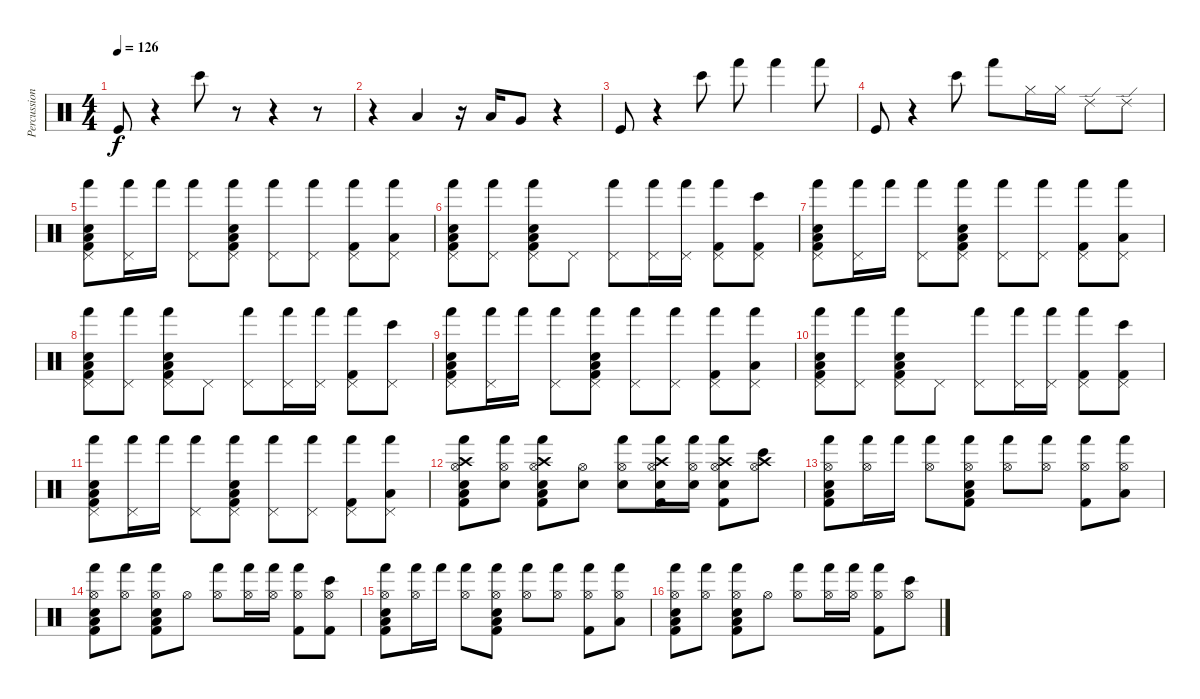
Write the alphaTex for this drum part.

\track ("Percussion" "Percussion") {instrument percussion}
\staff {score}
\articulation defaults
\ts (4 4)
\tempo 126
\clef neutral
\ks c "Kick (hit)".8{dy f}
r.4 "Bongo High (hit)".8 r.8 r.4 r.8 |
r.4 "Low Floor Tom (hit)".4 r.16 "Low Floor Tom (hit)".16 "Very Low Tom (hit)".8 r.4 |
"Kick (hit)".8 r.4 "Bongo High (hit)".8 "Hand (hit)".8 "Hand (hit)".4 "Hand (hit)".8 |
"Kick (hit)".8 r.4 "Bongo High (hit)".8 "Hand (hit)".8 "Hi-Hat (closed)".16 "Hi-Hat (closed)".16 "Ride (edge) 2".8 "Ride (edge) 2".8 |
("Hand (hit)" "Low Tom (hit)" "Kick (hit) 2" "Snare (hit) 2" "Pedal Hi-Hat (hit)").8 ("Hand (hit)" "Pedal Hi-Hat (hit)").16 "Hand (hit)".16 ("Hand (hit)" "Pedal Hi-Hat (hit)").8 ("Hand (hit)" "Low Tom (hit)" "Kick (hit) 2" "Snare (hit) 2" "Pedal Hi-Hat (hit)").8 ("Hand (hit)" "Pedal Hi-Hat (hit)").8 ("Hand (hit)" "Pedal Hi-Hat (hit)").8 ("Hand (hit)" "Kick (hit) 2" "Pedal Hi-Hat (hit)").8 ("Hand (hit)" "Low Tom (hit)" "Pedal Hi-Hat (hit)").8 |
("Hand (hit)" "Low Tom (hit)" "Kick (hit) 2" "Snare (hit) 2" "Pedal Hi-Hat (hit)").8 ("Hand (hit)" "Pedal Hi-Hat (hit)").8 ("Hand (hit)" "Low Tom (hit)" "Kick (hit) 2" "Snare (hit) 2" "Pedal Hi-Hat (hit)").8 "Pedal Hi-Hat (hit)".8 ("Hand (hit)" "Pedal Hi-Hat (hit)").8 ("Hand (hit)" "Pedal Hi-Hat (hit)").16 ("Hand (hit)" "Pedal Hi-Hat (hit)").16 ("Hand (hit)" "Kick (hit) 2" "Pedal Hi-Hat (hit)").8 ("Bongo High (hit)" "Kick (hit) 2" "Pedal Hi-Hat (hit)").8 |
("Hand (hit)" "Low Tom (hit)" "Kick (hit) 2" "Snare (hit) 2" "Pedal Hi-Hat (hit)").8 ("Hand (hit)" "Pedal Hi-Hat (hit)").16 "Hand (hit)".16 ("Hand (hit)" "Pedal Hi-Hat (hit)").8 ("Hand (hit)" "Low Tom (hit)" "Kick (hit) 2" "Snare (hit) 2" "Pedal Hi-Hat (hit)").8 ("Hand (hit)" "Pedal Hi-Hat (hit)").8 ("Hand (hit)" "Pedal Hi-Hat (hit)").8 ("Hand (hit)" "Kick (hit) 2" "Pedal Hi-Hat (hit)").8 ("Hand (hit)" "Low Tom (hit)" "Pedal Hi-Hat (hit)").8 |
("Hand (hit)" "Low Tom (hit)" "Kick (hit) 2" "Snare (hit) 2" "Pedal Hi-Hat (hit)").8 ("Hand (hit)" "Pedal Hi-Hat (hit)").8 ("Hand (hit)" "Low Tom (hit)" "Kick (hit) 2" "Snare (hit) 2" "Pedal Hi-Hat (hit)").8 "Pedal Hi-Hat (hit)".8 ("Hand (hit)" "Pedal Hi-Hat (hit)").8 ("Hand (hit)" "Pedal Hi-Hat (hit)").16 ("Hand (hit)" "Pedal Hi-Hat (hit)").16 ("Hand (hit)" "Kick (hit) 2" "Pedal Hi-Hat (hit)").8 ("Bongo High (hit)" "Pedal Hi-Hat (hit)").8 |
("Hand (hit)" "Low Tom (hit)" "Kick (hit) 2" "Snare (hit) 2" "Pedal Hi-Hat (hit)").8 ("Hand (hit)" "Pedal Hi-Hat (hit)").16 "Hand (hit)".16 ("Hand (hit)" "Pedal Hi-Hat (hit)").8 ("Hand (hit)" "Low Tom (hit)" "Kick (hit) 2" "Snare (hit) 2" "Pedal Hi-Hat (hit)").8 ("Hand (hit)" "Pedal Hi-Hat (hit)").8 ("Hand (hit)" "Pedal Hi-Hat (hit)").8 ("Hand (hit)" "Kick (hit) 2" "Pedal Hi-Hat (hit)").8 ("Hand (hit)" "Low Tom (hit)" "Pedal Hi-Hat (hit)").8 |
("Hand (hit)" "Low Tom (hit)" "Kick (hit) 2" "Snare (hit) 2" "Pedal Hi-Hat (hit)").8 ("Hand (hit)" "Pedal Hi-Hat (hit)").8 ("Hand (hit)" "Low Tom (hit)" "Kick (hit) 2" "Snare (hit) 2" "Pedal Hi-Hat (hit)").8 "Pedal Hi-Hat (hit)".8 ("Hand (hit)" "Pedal Hi-Hat (hit)").8 ("Hand (hit)" "Pedal Hi-Hat (hit)").16 ("Hand (hit)" "Pedal Hi-Hat (hit)").16 ("Hand (hit)" "Kick (hit) 2" "Pedal Hi-Hat (hit)").8 ("Bongo High (hit)" "Kick (hit) 2" "Pedal Hi-Hat (hit)").8 |
("Hand (hit)" "Low Tom (hit)" "Kick (hit) 2" "Snare (hit) 2" "Pedal Hi-Hat (hit)").8 ("Hand (hit)" "Pedal Hi-Hat (hit)").16 "Hand (hit)".16 ("Hand (hit)" "Pedal Hi-Hat (hit)").8 ("Hand (hit)" "Low Tom (hit)" "Kick (hit) 2" "Snare (hit) 2" "Pedal Hi-Hat (hit)").8 ("Hand (hit)" "Pedal Hi-Hat (hit)").8 ("Hand (hit)" "Pedal Hi-Hat (hit)").8 ("Hand (hit)" "Kick (hit) 2" "Pedal Hi-Hat (hit)").8 ("Hand (hit)" "Low Tom (hit)" "Pedal Hi-Hat (hit)").8 |
("Hand (hit)" "Crash high (hit)" "Low Tom (hit)" "Kick (hit) 2" "Snare (hit) 2" "Hi-Hat (open)").8 ("Hand (hit)" "Snare (hit) 2" "Hi-Hat (open)").8 ("Hand (hit)" "Crash high (hit)" "Low Tom (hit)" "Kick (hit) 2" "Snare (hit) 2" "Hi-Hat (open)").8 ("Snare (hit) 2" "Hi-Hat (open)").8 ("Hand (hit)" "Snare (hit) 2" "Hi-Hat (open)").8 ("Hand (hit)" "Crash high (hit)" "Snare (hit) 2" "Kick (hit) 2" "Hi-Hat (open)").16 ("Hand (hit)" "Snare (hit) 2" "Hi-Hat (open)").16 ("Hand (hit)" "Crash high (hit)" "Snare (hit) 2" "Kick (hit) 2" "Hi-Hat (open)").8 ("Bongo High (hit)" "Crash high (hit)" "Hi-Hat (open)").8 |
("Hand (hit)" "Low Tom (hit)" "Kick (hit) 2" "Snare (hit) 2" "Hi-Hat (open)").8 ("Hand (hit)" "Hi-Hat (open)").16 "Hand (hit)".16 ("Hand (hit)" "Hi-Hat (open)").8 ("Hand (hit)" "Low Tom (hit)" "Kick (hit) 2" "Snare (hit) 2" "Hi-Hat (open)").8 ("Hand (hit)" "Hi-Hat (open)").8 ("Hand (hit)" "Hi-Hat (open)").8 ("Hand (hit)" "Kick (hit) 2" "Hi-Hat (open)").8 ("Hand (hit)" "Low Tom (hit)" "Hi-Hat (open)").8 |
("Hand (hit)" "Low Tom (hit)" "Kick (hit) 2" "Snare (hit) 2" "Hi-Hat (open)").8 ("Hand (hit)" "Hi-Hat (open)").8 ("Hand (hit)" "Low Tom (hit)" "Kick (hit) 2" "Snare (hit) 2" "Hi-Hat (open)").8 "Hi-Hat (open)".8 ("Hand (hit)" "Hi-Hat (open)").8 ("Hand (hit)" "Hi-Hat (open)").16 ("Hand (hit)" "Hi-Hat (open)").16 ("Hand (hit)" "Kick (hit) 2" "Hi-Hat (open)").8 ("Bongo High (hit)" "Kick (hit) 2" "Hi-Hat (open)").8 |
("Hand (hit)" "Low Tom (hit)" "Kick (hit) 2" "Snare (hit) 2" "Hi-Hat (open)").8 ("Hand (hit)" "Hi-Hat (open)").16 "Hand (hit)".16 ("Hand (hit)" "Hi-Hat (open)").8 ("Hand (hit)" "Low Tom (hit)" "Kick (hit) 2" "Snare (hit) 2" "Hi-Hat (open)").8 ("Hand (hit)" "Hi-Hat (open)").8 ("Hand (hit)" "Hi-Hat (open)").8 ("Hand (hit)" "Kick (hit) 2" "Hi-Hat (open)").8 ("Hand (hit)" "Low Tom (hit)" "Hi-Hat (open)").8 |
("Hand (hit)" "Low Tom (hit)" "Kick (hit) 2" "Snare (hit) 2" "Hi-Hat (open)").8 ("Hand (hit)" "Hi-Hat (open)").8 ("Hand (hit)" "Low Tom (hit)" "Kick (hit) 2" "Snare (hit) 2" "Hi-Hat (open)").8 "Hi-Hat (open)".8 ("Hand (hit)" "Hi-Hat (open)").8 ("Hand (hit)" "Hi-Hat (open)").16 ("Hand (hit)" "Hi-Hat (open)").16 ("Hand (hit)" "Kick (hit) 2" "Hi-Hat (open)").8 ("Bongo High (hit)" "Hi-Hat (open)").8
